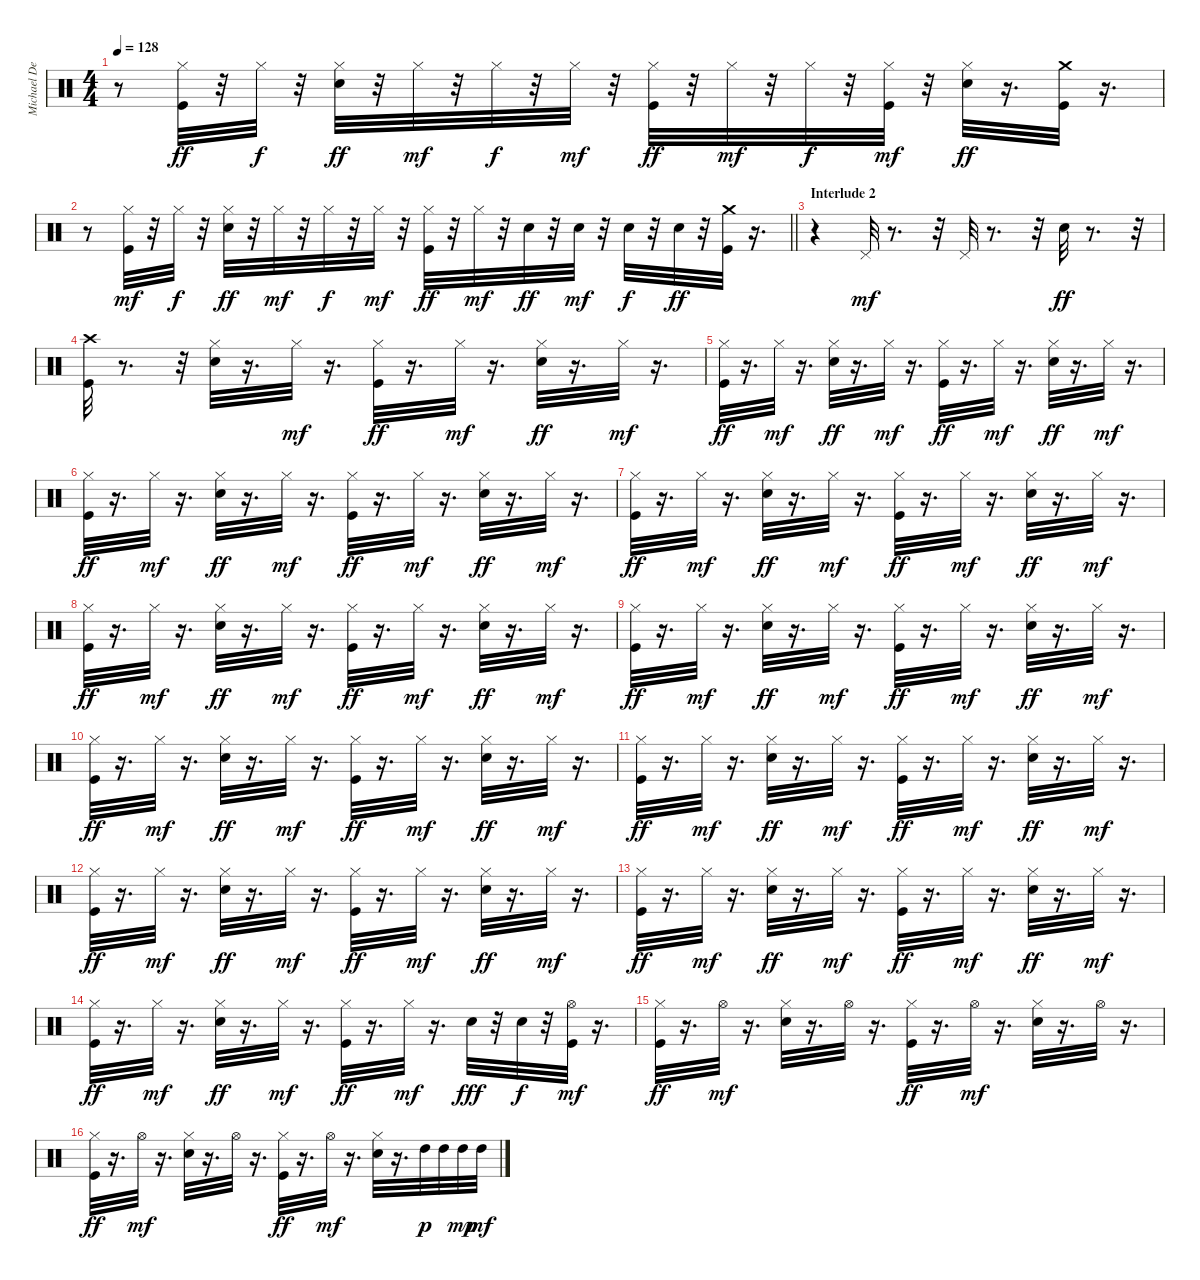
\track ("Michael DeRosier" "Michael De") {instrument percussion}
\staff {score}
\articulation defaults
\ts (4 4)
\tempo 128
\clef neutral
\ks c
r.8{dy f} ("Hi-Hat (closed)" "Kick (hit)").32{dy ff} r.32 "Hi-Hat (closed)".32{dy f} r.32 ("Snare (hit) 2" "Hi-Hat (closed)").32{dy ff} r.32 "Hi-Hat (closed)".32{dy mf} r.32 "Hi-Hat (closed)".32{dy f} r.32 "Hi-Hat (closed)".32{dy mf} r.32 ("Hi-Hat (closed)" "Kick (hit)").32{dy ff} r.32 "Hi-Hat (closed)".32{dy mf} r.32 "Hi-Hat (closed)".32{dy f} r.32 ("Hi-Hat (closed)" "Kick (hit)").32{dy mf} r.32 ("Snare (hit) 2" "Hi-Hat (closed)").32{dy ff} r.16{d} ("Kick (hit)" "Crash medium (hit)").32 r.16{d} |
\barLineRight lightlight
r.8 ("Hi-Hat (closed)" "Kick (hit)").32{dy mf} r.32 "Hi-Hat (closed)".32{dy f} r.32 ("Snare (hit) 2" "Hi-Hat (closed)").32{dy ff} r.32 "Hi-Hat (closed)".32{dy mf} r.32 "Hi-Hat (closed)".32{dy f} r.32 "Hi-Hat (closed)".32{dy mf} r.32 ("Hi-Hat (closed)" "Kick (hit)").32{dy ff} r.32 "Hi-Hat (closed)".32{dy mf} r.32 "Snare (hit) 2".32{dy ff} r.32 "Snare (hit) 2".32{dy mf} r.32 "Snare (hit) 2".32{dy f} r.32 "Snare (hit) 2".32{dy ff} r.32 ("Kick (hit)" "Crash medium (hit)").32 r.16{d} |
\section ("" "Interlude 2")
r.4 "Pedal Hi-Hat (hit)".32{dy mf} r.8{d} r.32 "Pedal Hi-Hat (hit)".32 r.8{d} r.32 "Snare (hit) 2".32{dy ff} r.8{d} r.32 |
("Kick (hit)" "Crash high (hit)").32 r.8{d} r.32 ("Snare (hit) 2" "Hi-Hat (closed)").32 r.16{d} "Hi-Hat (closed)".32{dy mf} r.16{d} ("Hi-Hat (closed)" "Kick (hit)").32{dy ff} r.16{d} "Hi-Hat (closed)".32{dy mf} r.16{d} ("Snare (hit) 2" "Hi-Hat (closed)").32{dy ff} r.16{d} "Hi-Hat (closed)".32{dy mf} r.16{d} |
("Hi-Hat (closed)" "Kick (hit)").32{dy ff} r.16{d} "Hi-Hat (closed)".32{dy mf} r.16{d} ("Snare (hit) 2" "Hi-Hat (closed)").32{dy ff} r.16{d} "Hi-Hat (closed)".32{dy mf} r.16{d} ("Hi-Hat (closed)" "Kick (hit)").32{dy ff} r.16{d} "Hi-Hat (closed)".32{dy mf} r.16{d} ("Snare (hit) 2" "Hi-Hat (closed)").32{dy ff} r.16{d} "Hi-Hat (closed)".32{dy mf} r.16{d} |
("Hi-Hat (closed)" "Kick (hit)").32{dy ff} r.16{d} "Hi-Hat (closed)".32{dy mf} r.16{d} ("Snare (hit) 2" "Hi-Hat (closed)").32{dy ff} r.16{d} "Hi-Hat (closed)".32{dy mf} r.16{d} ("Hi-Hat (closed)" "Kick (hit)").32{dy ff} r.16{d} "Hi-Hat (closed)".32{dy mf} r.16{d} ("Snare (hit) 2" "Hi-Hat (closed)").32{dy ff} r.16{d} "Hi-Hat (closed)".32{dy mf} r.16{d} |
("Hi-Hat (closed)" "Kick (hit)").32{dy ff} r.16{d} "Hi-Hat (closed)".32{dy mf} r.16{d} ("Snare (hit) 2" "Hi-Hat (closed)").32{dy ff} r.16{d} "Hi-Hat (closed)".32{dy mf} r.16{d} ("Hi-Hat (closed)" "Kick (hit)").32{dy ff} r.16{d} "Hi-Hat (closed)".32{dy mf} r.16{d} ("Snare (hit) 2" "Hi-Hat (closed)").32{dy ff} r.16{d} "Hi-Hat (closed)".32{dy mf} r.16{d} |
("Kick (hit)" "Hi-Hat (closed)").32{dy ff} r.16{d} "Hi-Hat (closed)".32{dy mf} r.16{d} ("Snare (hit) 2" "Hi-Hat (closed)").32{dy ff} r.16{d} "Hi-Hat (closed)".32{dy mf} r.16{d} ("Hi-Hat (closed)" "Kick (hit)").32{dy ff} r.16{d} "Hi-Hat (closed)".32{dy mf} r.16{d} ("Snare (hit) 2" "Hi-Hat (closed)").32{dy ff} r.16{d} "Hi-Hat (closed)".32{dy mf} r.16{d} |
("Hi-Hat (closed)" "Kick (hit)").32{dy ff} r.16{d} "Hi-Hat (closed)".32{dy mf} r.16{d} ("Snare (hit) 2" "Hi-Hat (closed)").32{dy ff} r.16{d} "Hi-Hat (closed)".32{dy mf} r.16{d} ("Hi-Hat (closed)" "Kick (hit)").32{dy ff} r.16{d} "Hi-Hat (closed)".32{dy mf} r.16{d} ("Snare (hit) 2" "Hi-Hat (closed)").32{dy ff} r.16{d} "Hi-Hat (closed)".32{dy mf} r.16{d} |
("Hi-Hat (closed)" "Kick (hit)").32{dy ff} r.16{d} "Hi-Hat (closed)".32{dy mf} r.16{d} ("Snare (hit) 2" "Hi-Hat (closed)").32{dy ff} r.16{d} "Hi-Hat (closed)".32{dy mf} r.16{d} ("Hi-Hat (closed)" "Kick (hit)").32{dy ff} r.16{d} "Hi-Hat (closed)".32{dy mf} r.16{d} ("Snare (hit) 2" "Hi-Hat (closed)").32{dy ff} r.16{d} "Hi-Hat (closed)".32{dy mf} r.16{d} |
("Kick (hit)" "Hi-Hat (closed)").32{dy ff} r.16{d} "Hi-Hat (closed)".32{dy mf} r.16{d} ("Snare (hit) 2" "Hi-Hat (closed)").32{dy ff} r.16{d} "Hi-Hat (closed)".32{dy mf} r.16{d} ("Hi-Hat (closed)" "Kick (hit)").32{dy ff} r.16{d} "Hi-Hat (closed)".32{dy mf} r.16{d} ("Snare (hit) 2" "Hi-Hat (closed)").32{dy ff} r.16{d} "Hi-Hat (closed)".32{dy mf} r.16{d} |
("Hi-Hat (closed)" "Kick (hit)").32{dy ff} r.16{d} "Hi-Hat (closed)".32{dy mf} r.16{d} ("Snare (hit) 2" "Hi-Hat (closed)").32{dy ff} r.16{d} "Hi-Hat (closed)".32{dy mf} r.16{d} ("Kick (hit)" "Hi-Hat (closed)").32{dy ff} r.16{d} "Hi-Hat (closed)".32{dy mf} r.16{d} ("Snare (hit) 2" "Hi-Hat (closed)").32{dy ff} r.16{d} "Hi-Hat (closed)".32{dy mf} r.16{d} |
("Hi-Hat (closed)" "Kick (hit)").32{dy ff} r.16{d} "Hi-Hat (closed)".32{dy mf} r.16{d} ("Snare (hit) 2" "Hi-Hat (closed)").32{dy ff} r.16{d} "Hi-Hat (closed)".32{dy mf} r.16{d} ("Hi-Hat (closed)" "Kick (hit)").32{dy ff} r.16{d} "Hi-Hat (closed)".32{dy mf} r.16{d} ("Snare (hit) 2" "Hi-Hat (closed)").32{dy ff} r.16{d} "Hi-Hat (closed)".32{dy mf} r.16{d} |
("Hi-Hat (closed)" "Kick (hit)").32{dy ff} r.16{d} "Hi-Hat (closed)".32{dy mf} r.16{d} ("Snare (hit) 2" "Hi-Hat (closed)").32{dy ff} r.16{d} "Hi-Hat (closed)".32{dy mf} r.16{d} ("Hi-Hat (closed)" "Kick (hit)").32{dy ff} r.16{d} "Hi-Hat (closed)".32{dy mf} r.16{d} "Snare (hit) 2".32{dy fff} r.32 "Snare (hit) 2".32{dy f} r.32 ("Hi-Hat (open)" "Kick (hit)").32{dy mf} r.16{d} |
("Hi-Hat (closed)" "Kick (hit)").32{dy ff} r.16{d} "Hi-Hat (open)".32{dy mf} r.16{d} ("Snare (hit) 2" "Hi-Hat (closed)").32 r.16{d} "Hi-Hat (open)".32 r.16{d} ("Hi-Hat (closed)" "Kick (hit)").32{dy ff} r.16{d} "Hi-Hat (open)".32{dy mf} r.16{d} ("Snare (hit) 2" "Hi-Hat (closed)").32 r.16{d} "Hi-Hat (open)".32 r.16{d} |
("Hi-Hat (closed)" "Kick (hit)").32{dy ff} r.16{d} "Hi-Hat (open)".32{dy mf} r.16{d} ("Snare (hit) 2" "Hi-Hat (closed)").32 r.16{d} "Hi-Hat (open)".32 r.16{d} ("Hi-Hat (closed)" "Kick (hit)").32{dy ff} r.16{d} "Hi-Hat (open)".32{dy mf} r.16{d} ("Snare (hit) 2" "Hi-Hat (closed)").32 r.16{d} "High Tom (hit)".32{dy p} "High Tom (hit)".32 "High Tom (hit)".32{dy mp} "High Tom (hit)".32{dy mf}
